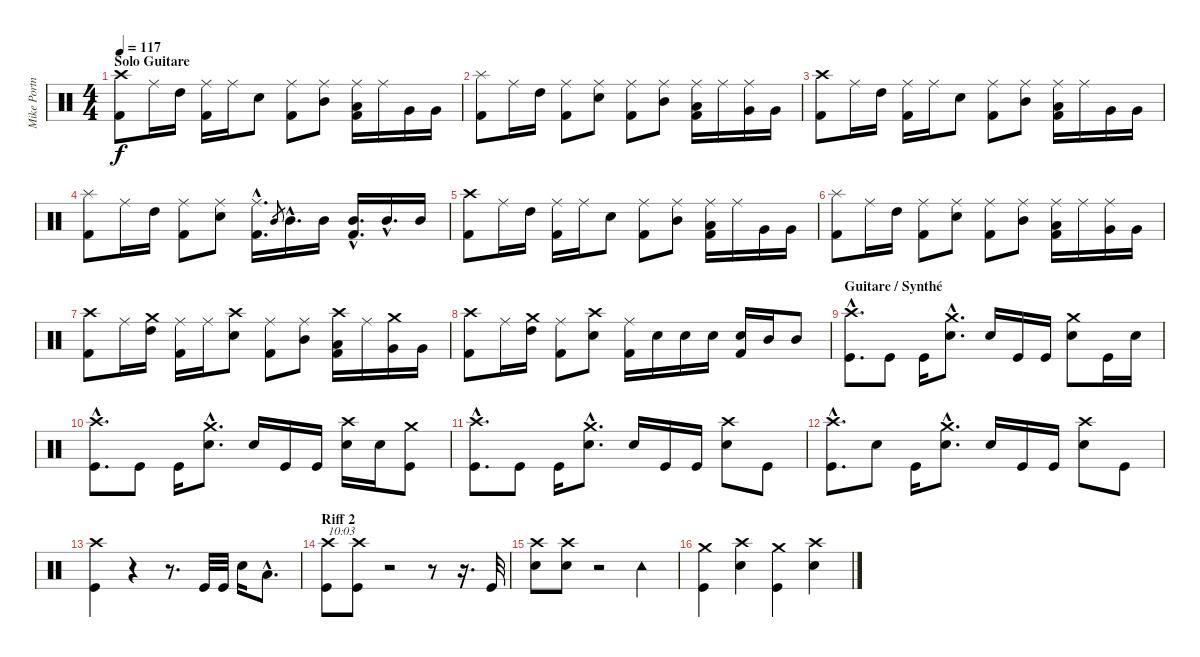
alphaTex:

\track ("Mike Portnoy" "Mike Portn") {instrument percussion}
\staff {score}
\articulation defaults
\ts (4 4)
\section ("" "Solo Guitare")
\tempo 117
\clef neutral
\ks c
("Crash high (hit)" "Kick (hit) 2").8{dy f} "Ride (middle)".16 "High Tom (hit)".16 ("Ride (middle)" "Kick (hit) 2").16 "Ride (middle)".16 "Snare (hit) 2".8 ("Ride (middle)" "Kick (hit) 2").8 ("Ride (middle)" "Mid Tom (hit)").8 ("Ride (middle)" "Low Tom (hit)" "Kick (hit) 2").16 "Ride (middle)".16 "Very Low Tom (hit)".16 "Very Low Tom (hit)".16 |
("Splash (hit)" "Kick (hit) 2").8 "Ride (middle)".16 "High Tom (hit)".16 ("Ride (middle)" "Kick (hit) 2").8 ("Ride (middle)" "Snare (hit) 2").8 ("Ride (middle)" "Kick (hit) 2").8 ("Ride (middle)" "Mid Tom (hit)").8 ("Ride (middle)" "Low Tom (hit)" "Kick (hit) 2").16 "Ride (middle)".16 ("Ride (middle)" "Very Low Tom (hit)").16 "Very Low Tom (hit)".16 |
("Crash high (hit)" "Kick (hit) 2").8 "Ride (middle)".16 "High Tom (hit)".16 ("Ride (middle)" "Kick (hit) 2").16 "Ride (middle)".16 "Snare (hit) 2".8 ("Ride (middle)" "Kick (hit) 2").8 ("Ride (middle)" "Mid Tom (hit)").8 ("Ride (middle)" "Low Tom (hit)" "Kick (hit) 2").16 "Ride (middle)".16 "Very Low Tom (hit)".16 "Very Low Tom (hit)".16 |
("Splash (hit)" "Kick (hit) 2").8 "Ride (middle)".16 "High Tom (hit)".16 ("Ride (middle)" "Kick (hit) 2").8 ("Ride (middle)" "Snare (hit) 2").8 ("Ride (middle)"{hac} "Kick (hit) 2"{hac}).16{d} "Mid Tom (hit)".8{gr} "Mid Tom (hit)"{hac}.16{d} "Mid Tom (hit)".16 ("Mid Tom (hit)"{hac} "Kick (hit) 2"{hac}).16{d} "Mid Tom (hit)"{hac}.16{d} "Mid Tom (hit)".16 |
("Crash high (hit)" "Kick (hit) 2").8 "Ride (middle)".16 "High Tom (hit)".16 ("Ride (middle)" "Kick (hit) 2").16 "Ride (middle)".16 "Snare (hit) 2".8 ("Ride (middle)" "Kick (hit) 2").8 ("Ride (middle)" "Mid Tom (hit)").8 ("Ride (middle)" "Low Tom (hit)" "Kick (hit) 2").16 "Ride (middle)".16 "Very Low Tom (hit)".16 "Very Low Tom (hit)".16 |
("Splash (hit)" "Kick (hit) 2").8 "Ride (middle)".16 "High Tom (hit)".16 ("Ride (middle)" "Kick (hit) 2").8 ("Ride (middle)" "Snare (hit) 2").8 ("Ride (middle)" "Kick (hit) 2").8 ("Ride (middle)" "Mid Tom (hit)").8 ("Ride (middle)" "Low Tom (hit)" "Kick (hit) 2").16 "Ride (middle)".16 ("Ride (middle)" "Very Low Tom (hit)").16 "Very Low Tom (hit)".16 |
("Crash high (hit)" "Kick (hit) 2").8 "Ride (middle)".16 ("Crash medium (hit)" "High Tom (hit)").16 ("Ride (middle)" "Kick (hit) 2").16 "Ride (middle)".16 ("Crash high (hit)" "Snare (hit) 2").8 ("Ride (middle)" "Kick (hit) 2").8 ("Ride (middle)" "Mid Tom (hit)").8 ("Crash high (hit)" "Low Tom (hit)" "Kick (hit) 2").16 "Ride (middle)".16 ("Crash medium (hit)" "Very Low Tom (hit)").16 "Very Low Tom (hit)".16 |
("Crash high (hit)" "Kick (hit) 2").8 "Ride (middle)".16 ("Crash medium (hit)" "High Tom (hit)").16 ("Ride (middle)" "Kick (hit) 2").8 ("Crash high (hit)" "Snare (hit) 2").8 ("Ride (middle)" "Kick (hit) 2").16 "Snare (hit) 2".16 "Snare (hit) 2".16 "Snare (hit) 2".16 ("Snare (hit) 2" "Kick (hit) 2").16 "Mid Tom (hit)".16 "Mid Tom (hit)".8 |
\section ("" "Guitare / Synthé")
("Crash high (hit)"{hac} "Kick (hit)"{hac}).8{d} "Kick (hit)".8 "Kick (hit)".16 ("Crash medium (hit)"{hac} "Snare (hit) 2"{hac}).8{d} "Snare (hit) 2".16 "Kick (hit)".16 "Kick (hit)".16 ("Crash medium (hit)" "Snare (hit) 2").8 "Kick (hit)".16 "Snare (hit) 2".16 |
("Crash high (hit)"{hac} "Kick (hit)"{hac}).8{d} "Kick (hit)".8 "Kick (hit)".16 ("Crash medium (hit)"{hac} "Snare (hit) 2"{hac}).8{d} "Snare (hit) 2".16 "Kick (hit)".16 "Kick (hit)".16 ("Crash high (hit)" "Snare (hit) 2").16 "Snare (hit) 2".16 ("Crash medium (hit)" "Kick (hit)").8 |
("Crash high (hit)"{hac} "Kick (hit)"{hac}).8{d} "Kick (hit)".8 "Kick (hit)".16 ("Crash medium (hit)"{hac} "Snare (hit) 2"{hac}).8{d} "Snare (hit) 2".16 "Kick (hit)".16 "Kick (hit)".16 ("Crash high (hit)" "Snare (hit) 2").8 "Kick (hit)".8 |
("Crash high (hit)"{hac} "Kick (hit)"{hac}).8{d} "Snare (hit) 2".8 "Kick (hit)".16 ("Crash medium (hit)"{hac} "Snare (hit) 2"{hac}).8{d} "Snare (hit) 2".16 "Kick (hit)".16 "Kick (hit)".16 ("Crash high (hit)" "Snare (hit) 2").8 "Kick (hit)".8 |
("Crash high (hit)" "Kick (hit)").4 r.4 r.8{d} "Kick (hit)".32 "Kick (hit)".32 "Snare (hit) 2".16 "Low Tom (hit)"{hac}.8{d} |
\section ("" "Riff 2")
("Crash high (hit)" "Kick (hit)").8{txt "10:03"} ("Crash high (hit)" "Kick (hit)").8 r.2 r.8 r.16{d} "Kick (hit)".32 |
("Crash high (hit)" "Snare (hit) 2").8 ("Crash high (hit)" "Snare (hit) 2").8 r.2 "Tambourine (hit)".4 |
("Crash medium (hit)" "Kick (hit)").4 ("Crash high (hit)" "Snare (hit) 2").4 ("Crash medium (hit)" "Kick (hit)").4 ("Crash high (hit)" "Snare (hit) 2").4
